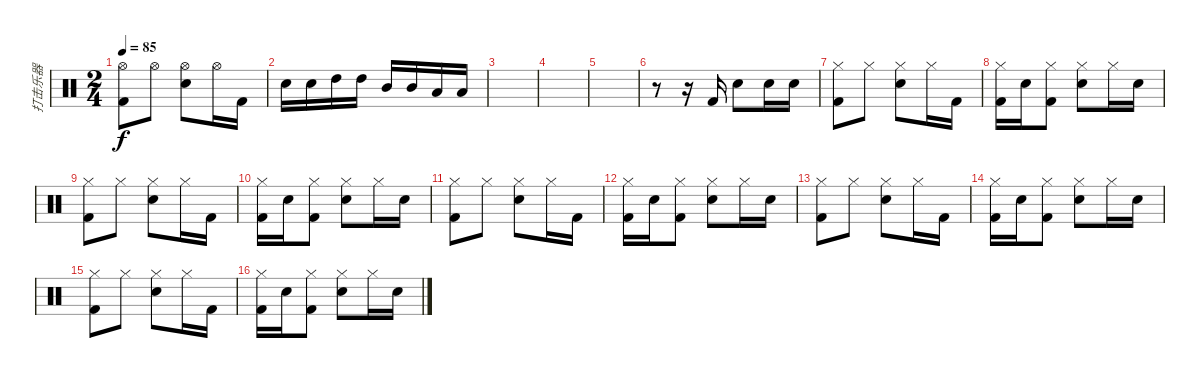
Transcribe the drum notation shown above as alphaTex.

\track ("打击乐器" "打击乐器") {instrument percussion}
\staff {score}
\articulation defaults
\ts (2 4)
\tempo 85
\clef neutral
\ks c
("Hi-Hat (open)" "Kick (hit) 2").8{dy f} "Hi-Hat (open)".8 ("Hi-Hat (open)" "Electric Snare (hit)").8 "Hi-Hat (open)".16 "Kick (hit) 2".16 |
"Electric Snare (hit)".16 "Electric Snare (hit)".16 "High Tom (hit)".16 "High Tom (hit)".16 "Mid Tom (hit)".16 "Mid Tom (hit)".16 "Low Tom (hit)".16 "Low Tom (hit)".16 |
|
|
|
r.8 r.16 "Kick (hit) 2".16 "Electric Snare (hit)".8 "Electric Snare (hit)".16 "Electric Snare (hit)".16 |
("Hi-Hat (closed)" "Kick (hit) 2").8 "Hi-Hat (closed)".8 ("Hi-Hat (closed)" "Electric Snare (hit)").8 "Hi-Hat (closed)".16 "Kick (hit) 2".16 |
("Hi-Hat (closed)" "Kick (hit) 2").16 "Electric Snare (hit)".16 ("Hi-Hat (closed)" "Kick (hit) 2").8 ("Hi-Hat (closed)" "Electric Snare (hit)").8 "Hi-Hat (closed)".16 "Electric Snare (hit)".16 |
("Hi-Hat (closed)" "Kick (hit) 2").8 "Hi-Hat (closed)".8 ("Hi-Hat (closed)" "Electric Snare (hit)").8 "Hi-Hat (closed)".16 "Kick (hit) 2".16 |
("Hi-Hat (closed)" "Kick (hit) 2").16 "Electric Snare (hit)".16 ("Hi-Hat (closed)" "Kick (hit) 2").8 ("Hi-Hat (closed)" "Electric Snare (hit)").8 "Hi-Hat (closed)".16 "Electric Snare (hit)".16 |
("Hi-Hat (closed)" "Kick (hit) 2").8 "Hi-Hat (closed)".8 ("Hi-Hat (closed)" "Electric Snare (hit)").8 "Hi-Hat (closed)".16 "Kick (hit) 2".16 |
("Hi-Hat (closed)" "Kick (hit) 2").16 "Electric Snare (hit)".16 ("Hi-Hat (closed)" "Kick (hit) 2").8 ("Hi-Hat (closed)" "Electric Snare (hit)").8 "Hi-Hat (closed)".16 "Electric Snare (hit)".16 |
("Hi-Hat (closed)" "Kick (hit) 2").8 "Hi-Hat (closed)".8 ("Hi-Hat (closed)" "Electric Snare (hit)").8 "Hi-Hat (closed)".16 "Kick (hit) 2".16 |
("Hi-Hat (closed)" "Kick (hit) 2").16 "Electric Snare (hit)".16 ("Hi-Hat (closed)" "Kick (hit) 2").8 ("Hi-Hat (closed)" "Electric Snare (hit)").8 "Hi-Hat (closed)".16 "Electric Snare (hit)".16 |
("Hi-Hat (closed)" "Kick (hit) 2").8 "Hi-Hat (closed)".8 ("Hi-Hat (closed)" "Electric Snare (hit)").8 "Hi-Hat (closed)".16 "Kick (hit) 2".16 |
("Hi-Hat (closed)" "Kick (hit) 2").16 "Electric Snare (hit)".16 ("Hi-Hat (closed)" "Kick (hit) 2").8 ("Hi-Hat (closed)" "Electric Snare (hit)").8 "Hi-Hat (closed)".16 "Electric Snare (hit)".16
